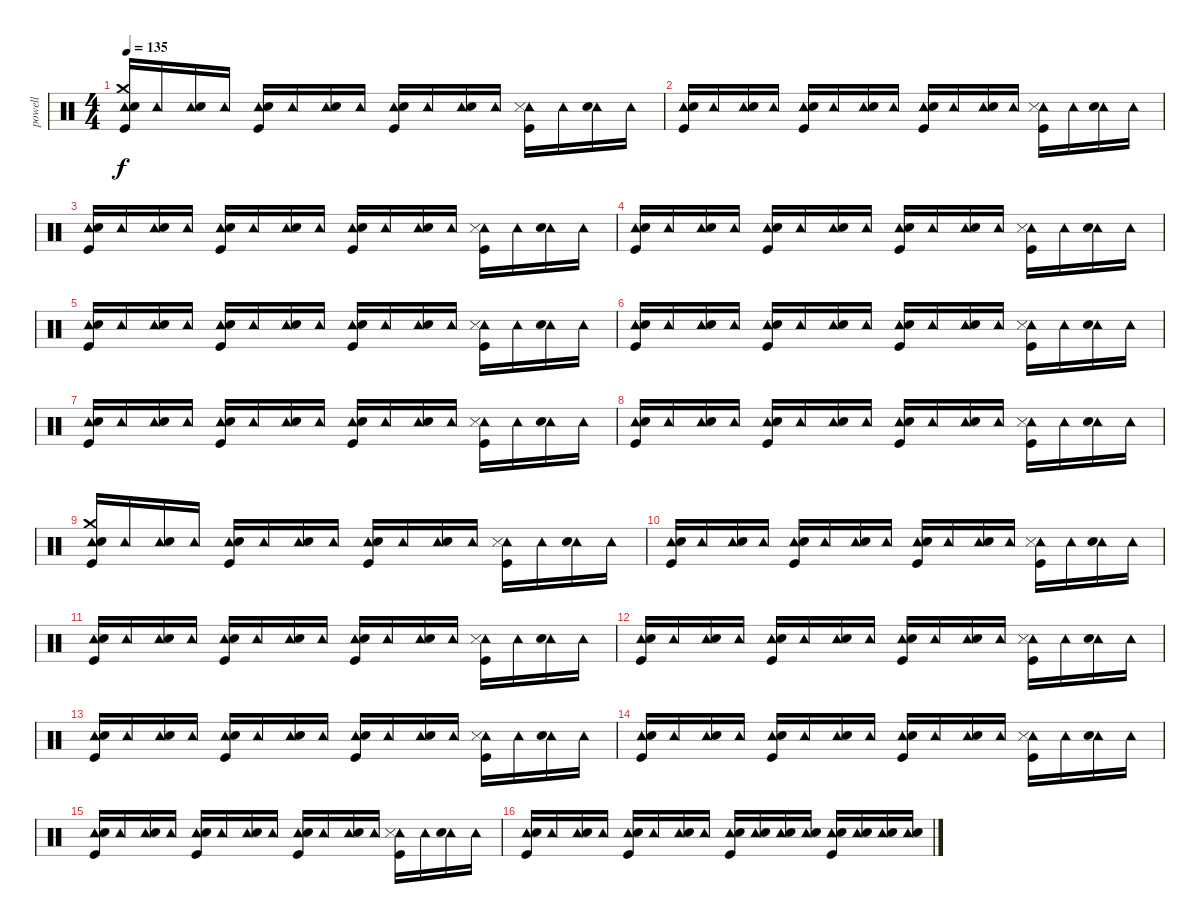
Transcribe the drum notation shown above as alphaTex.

\track ("powell" "powell") {instrument percussion}
\staff {score}
\articulation defaults
\ts (4 4)
\tempo 135
\clef neutral
\ks c
("Tambourine (hit)" "Electric Snare (hit)" "Crash medium (hit)" "Kick (hit)").16{dy f} "Tambourine (hit)".16 ("Tambourine (hit)" "Electric Snare (hit)").16 "Tambourine (hit)".16 ("Tambourine (hit)" "Electric Snare (hit)" "Kick (hit)").16 "Tambourine (hit)".16 ("Tambourine (hit)" "Electric Snare (hit)").16 "Tambourine (hit)".16 ("Tambourine (hit)" "Electric Snare (hit)" "Kick (hit)").16 "Tambourine (hit)".16 ("Tambourine (hit)" "Electric Snare (hit)").16 "Tambourine (hit)".16 ("Tambourine (hit)" "Snare (side stick) 3" "Kick (hit)").16 "Tambourine (hit)".16 ("Tambourine (hit)" "Electric Snare (hit)").16 "Tambourine (hit)".16 |
("Tambourine (hit)" "Electric Snare (hit)" "Kick (hit)").16 "Tambourine (hit)".16 ("Tambourine (hit)" "Electric Snare (hit)").16 "Tambourine (hit)".16 ("Tambourine (hit)" "Electric Snare (hit)" "Kick (hit)").16 "Tambourine (hit)".16 ("Tambourine (hit)" "Electric Snare (hit)").16 "Tambourine (hit)".16 ("Tambourine (hit)" "Electric Snare (hit)" "Kick (hit)").16 "Tambourine (hit)".16 ("Tambourine (hit)" "Electric Snare (hit)").16 "Tambourine (hit)".16 ("Tambourine (hit)" "Snare (side stick) 3" "Kick (hit)").16 "Tambourine (hit)".16 ("Tambourine (hit)" "Electric Snare (hit)").16 "Tambourine (hit)".16 |
("Tambourine (hit)" "Electric Snare (hit)" "Kick (hit)").16 "Tambourine (hit)".16 ("Tambourine (hit)" "Electric Snare (hit)").16 "Tambourine (hit)".16 ("Tambourine (hit)" "Electric Snare (hit)" "Kick (hit)").16 "Tambourine (hit)".16 ("Tambourine (hit)" "Electric Snare (hit)").16 "Tambourine (hit)".16 ("Tambourine (hit)" "Electric Snare (hit)" "Kick (hit)").16 "Tambourine (hit)".16 ("Tambourine (hit)" "Electric Snare (hit)").16 "Tambourine (hit)".16 ("Tambourine (hit)" "Snare (side stick) 3" "Kick (hit)").16 "Tambourine (hit)".16 ("Tambourine (hit)" "Electric Snare (hit)").16 "Tambourine (hit)".16 |
("Tambourine (hit)" "Electric Snare (hit)" "Kick (hit)").16 "Tambourine (hit)".16 ("Tambourine (hit)" "Electric Snare (hit)").16 "Tambourine (hit)".16 ("Tambourine (hit)" "Electric Snare (hit)" "Kick (hit)").16 "Tambourine (hit)".16 ("Tambourine (hit)" "Electric Snare (hit)").16 "Tambourine (hit)".16 ("Tambourine (hit)" "Electric Snare (hit)" "Kick (hit)").16 "Tambourine (hit)".16 ("Tambourine (hit)" "Electric Snare (hit)").16 "Tambourine (hit)".16 ("Tambourine (hit)" "Snare (side stick) 3" "Kick (hit)").16 "Tambourine (hit)".16 ("Tambourine (hit)" "Electric Snare (hit)").16 "Tambourine (hit)".16 |
("Tambourine (hit)" "Electric Snare (hit)" "Kick (hit)").16 "Tambourine (hit)".16 ("Tambourine (hit)" "Electric Snare (hit)").16 "Tambourine (hit)".16 ("Tambourine (hit)" "Electric Snare (hit)" "Kick (hit)").16 "Tambourine (hit)".16 ("Tambourine (hit)" "Electric Snare (hit)").16 "Tambourine (hit)".16 ("Tambourine (hit)" "Electric Snare (hit)" "Kick (hit)").16 "Tambourine (hit)".16 ("Tambourine (hit)" "Electric Snare (hit)").16 "Tambourine (hit)".16 ("Tambourine (hit)" "Snare (side stick) 3" "Kick (hit)").16 "Tambourine (hit)".16 ("Tambourine (hit)" "Electric Snare (hit)").16 "Tambourine (hit)".16 |
("Tambourine (hit)" "Electric Snare (hit)" "Kick (hit)").16 "Tambourine (hit)".16 ("Tambourine (hit)" "Electric Snare (hit)").16 "Tambourine (hit)".16 ("Tambourine (hit)" "Electric Snare (hit)" "Kick (hit)").16 "Tambourine (hit)".16 ("Tambourine (hit)" "Electric Snare (hit)").16 "Tambourine (hit)".16 ("Tambourine (hit)" "Electric Snare (hit)" "Kick (hit)").16 "Tambourine (hit)".16 ("Tambourine (hit)" "Electric Snare (hit)").16 "Tambourine (hit)".16 ("Tambourine (hit)" "Snare (side stick) 3" "Kick (hit)").16 "Tambourine (hit)".16 ("Tambourine (hit)" "Electric Snare (hit)").16 "Tambourine (hit)".16 |
("Tambourine (hit)" "Electric Snare (hit)" "Kick (hit)").16 "Tambourine (hit)".16 ("Tambourine (hit)" "Electric Snare (hit)").16 "Tambourine (hit)".16 ("Tambourine (hit)" "Electric Snare (hit)" "Kick (hit)").16 "Tambourine (hit)".16 ("Tambourine (hit)" "Electric Snare (hit)").16 "Tambourine (hit)".16 ("Tambourine (hit)" "Electric Snare (hit)" "Kick (hit)").16 "Tambourine (hit)".16 ("Tambourine (hit)" "Electric Snare (hit)").16 "Tambourine (hit)".16 ("Tambourine (hit)" "Snare (side stick) 3" "Kick (hit)").16 "Tambourine (hit)".16 ("Tambourine (hit)" "Electric Snare (hit)").16 "Tambourine (hit)".16 |
("Tambourine (hit)" "Electric Snare (hit)" "Kick (hit)").16 "Tambourine (hit)".16 ("Tambourine (hit)" "Electric Snare (hit)").16 "Tambourine (hit)".16 ("Tambourine (hit)" "Electric Snare (hit)" "Kick (hit)").16 "Tambourine (hit)".16 ("Tambourine (hit)" "Electric Snare (hit)").16 "Tambourine (hit)".16 ("Tambourine (hit)" "Electric Snare (hit)" "Kick (hit)").16 "Tambourine (hit)".16 ("Tambourine (hit)" "Electric Snare (hit)").16 "Tambourine (hit)".16 ("Tambourine (hit)" "Snare (side stick) 3" "Kick (hit)").16 "Tambourine (hit)".16 ("Tambourine (hit)" "Electric Snare (hit)").16 "Tambourine (hit)".16 |
("Tambourine (hit)" "Electric Snare (hit)" "Crash medium (hit)" "Kick (hit)").16 "Tambourine (hit)".16 ("Tambourine (hit)" "Electric Snare (hit)").16 "Tambourine (hit)".16 ("Tambourine (hit)" "Electric Snare (hit)" "Kick (hit)").16 "Tambourine (hit)".16 ("Tambourine (hit)" "Electric Snare (hit)").16 "Tambourine (hit)".16 ("Tambourine (hit)" "Electric Snare (hit)" "Kick (hit)").16 "Tambourine (hit)".16 ("Tambourine (hit)" "Electric Snare (hit)").16 "Tambourine (hit)".16 ("Tambourine (hit)" "Snare (side stick) 3" "Kick (hit)").16 "Tambourine (hit)".16 ("Tambourine (hit)" "Electric Snare (hit)").16 "Tambourine (hit)".16 |
("Tambourine (hit)" "Electric Snare (hit)" "Kick (hit)").16 "Tambourine (hit)".16 ("Tambourine (hit)" "Electric Snare (hit)").16 "Tambourine (hit)".16 ("Tambourine (hit)" "Electric Snare (hit)" "Kick (hit)").16 "Tambourine (hit)".16 ("Tambourine (hit)" "Electric Snare (hit)").16 "Tambourine (hit)".16 ("Tambourine (hit)" "Electric Snare (hit)" "Kick (hit)").16 "Tambourine (hit)".16 ("Tambourine (hit)" "Electric Snare (hit)").16 "Tambourine (hit)".16 ("Tambourine (hit)" "Snare (side stick) 3" "Kick (hit)").16 "Tambourine (hit)".16 ("Tambourine (hit)" "Electric Snare (hit)").16 "Tambourine (hit)".16 |
("Tambourine (hit)" "Electric Snare (hit)" "Kick (hit)").16 "Tambourine (hit)".16 ("Tambourine (hit)" "Electric Snare (hit)").16 "Tambourine (hit)".16 ("Tambourine (hit)" "Electric Snare (hit)" "Kick (hit)").16 "Tambourine (hit)".16 ("Tambourine (hit)" "Electric Snare (hit)").16 "Tambourine (hit)".16 ("Tambourine (hit)" "Electric Snare (hit)" "Kick (hit)").16 "Tambourine (hit)".16 ("Tambourine (hit)" "Electric Snare (hit)").16 "Tambourine (hit)".16 ("Tambourine (hit)" "Snare (side stick) 3" "Kick (hit)").16 "Tambourine (hit)".16 ("Tambourine (hit)" "Electric Snare (hit)").16 "Tambourine (hit)".16 |
("Tambourine (hit)" "Electric Snare (hit)" "Kick (hit)").16 "Tambourine (hit)".16 ("Tambourine (hit)" "Electric Snare (hit)").16 "Tambourine (hit)".16 ("Tambourine (hit)" "Electric Snare (hit)" "Kick (hit)").16 "Tambourine (hit)".16 ("Tambourine (hit)" "Electric Snare (hit)").16 "Tambourine (hit)".16 ("Tambourine (hit)" "Electric Snare (hit)" "Kick (hit)").16 "Tambourine (hit)".16 ("Tambourine (hit)" "Electric Snare (hit)").16 "Tambourine (hit)".16 ("Tambourine (hit)" "Snare (side stick) 3" "Kick (hit)").16 "Tambourine (hit)".16 ("Tambourine (hit)" "Electric Snare (hit)").16 "Tambourine (hit)".16 |
("Tambourine (hit)" "Electric Snare (hit)" "Kick (hit)").16 "Tambourine (hit)".16 ("Tambourine (hit)" "Electric Snare (hit)").16 "Tambourine (hit)".16 ("Tambourine (hit)" "Electric Snare (hit)" "Kick (hit)").16 "Tambourine (hit)".16 ("Tambourine (hit)" "Electric Snare (hit)").16 "Tambourine (hit)".16 ("Tambourine (hit)" "Electric Snare (hit)" "Kick (hit)").16 "Tambourine (hit)".16 ("Tambourine (hit)" "Electric Snare (hit)").16 "Tambourine (hit)".16 ("Tambourine (hit)" "Snare (side stick) 3" "Kick (hit)").16 "Tambourine (hit)".16 ("Tambourine (hit)" "Electric Snare (hit)").16 "Tambourine (hit)".16 |
("Tambourine (hit)" "Electric Snare (hit)" "Kick (hit)").16 "Tambourine (hit)".16 ("Tambourine (hit)" "Electric Snare (hit)").16 "Tambourine (hit)".16 ("Tambourine (hit)" "Electric Snare (hit)" "Kick (hit)").16 "Tambourine (hit)".16 ("Tambourine (hit)" "Electric Snare (hit)").16 "Tambourine (hit)".16 ("Tambourine (hit)" "Electric Snare (hit)" "Kick (hit)").16 "Tambourine (hit)".16 ("Tambourine (hit)" "Electric Snare (hit)").16 "Tambourine (hit)".16 ("Tambourine (hit)" "Snare (side stick) 3" "Kick (hit)").16 "Tambourine (hit)".16 ("Tambourine (hit)" "Electric Snare (hit)").16 "Tambourine (hit)".16 |
("Tambourine (hit)" "Electric Snare (hit)" "Kick (hit)").16 "Tambourine (hit)".16 ("Tambourine (hit)" "Electric Snare (hit)").16 "Tambourine (hit)".16 ("Tambourine (hit)" "Electric Snare (hit)" "Kick (hit)").16 "Tambourine (hit)".16 ("Tambourine (hit)" "Electric Snare (hit)").16 "Tambourine (hit)".16 ("Tambourine (hit)" "Electric Snare (hit)" "Kick (hit)").16 "Tambourine (hit)".16 ("Tambourine (hit)" "Electric Snare (hit)").16 "Tambourine (hit)".16 ("Tambourine (hit)" "Snare (side stick) 3" "Kick (hit)").16 "Tambourine (hit)".16 ("Tambourine (hit)" "Electric Snare (hit)").16 "Tambourine (hit)".16 |
("Tambourine (hit)" "Electric Snare (hit)" "Kick (hit)").16 "Tambourine (hit)".16 ("Tambourine (hit)" "Electric Snare (hit)").16 "Tambourine (hit)".16 ("Tambourine (hit)" "Electric Snare (hit)" "Kick (hit)").16 "Tambourine (hit)".16 ("Tambourine (hit)" "Electric Snare (hit)").16 "Tambourine (hit)".16 ("Tambourine (hit)" "Electric Snare (hit)" "Kick (hit)").16 ("Tambourine (hit)" "Electric Snare (hit)").16 ("Tambourine (hit)" "Electric Snare (hit)").16 ("Tambourine (hit)" "Electric Snare (hit)").16 ("Tambourine (hit)" "Electric Snare (hit)" "Kick (hit)").16 ("Tambourine (hit)" "Electric Snare (hit)").16 ("Tambourine (hit)" "Electric Snare (hit)").16 ("Tambourine (hit)" "Electric Snare (hit)").16
